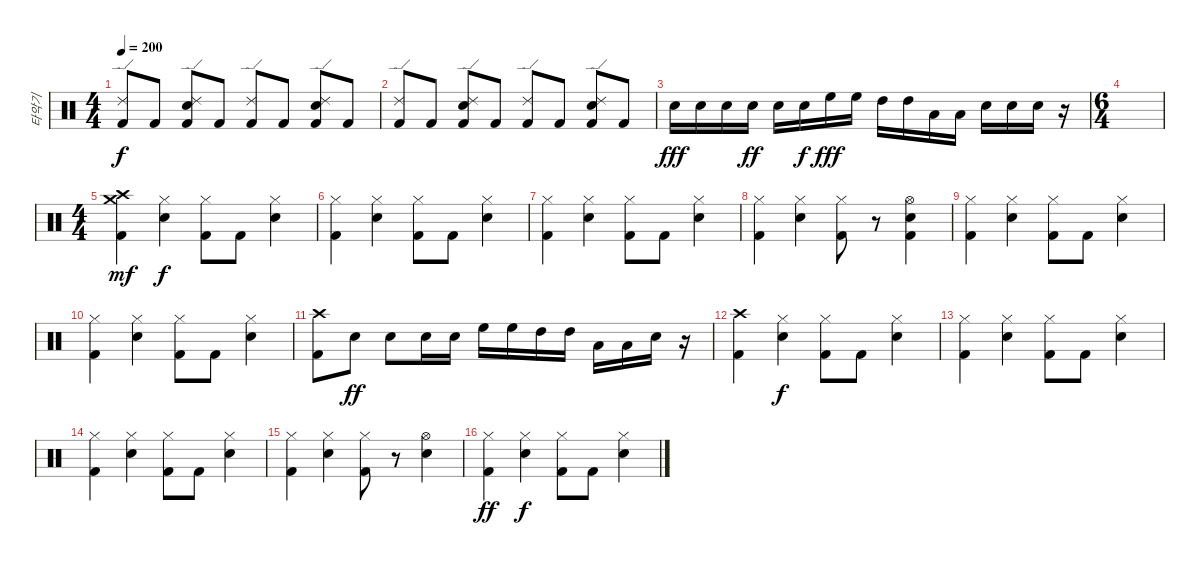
\track ("타악기" "타악기") {instrument percussion}
\staff {score}
\articulation defaults
\ts (4 4)
\tempo 200
\clef neutral
\ks c
("Ride (edge) 2" "Kick (hit) 2").8{dy f} "Kick (hit) 2".8 ("Ride (edge) 2" "Snare (hit) 2" "Kick (hit) 2").8 "Kick (hit) 2".8 ("Ride (edge) 2" "Kick (hit) 2").8 "Kick (hit) 2".8 ("Ride (edge) 2" "Snare (hit) 2" "Kick (hit) 2").8 "Kick (hit) 2".8 |
("Ride (edge) 2" "Kick (hit) 2").8 "Kick (hit) 2".8 ("Ride (edge) 2" "Snare (hit) 2" "Kick (hit) 2").8 "Kick (hit) 2".8 ("Ride (edge) 2" "Kick (hit) 2").8 "Kick (hit) 2".8 ("Ride (edge) 2" "Snare (hit) 2" "Kick (hit) 2").8 "Kick (hit) 2".8 |
"Snare (hit) 2".16{dy fff} "Snare (hit) 2".16 "Snare (hit) 2".16 "Snare (hit) 2".16{dy ff} "Snare (hit) 2".16 "Snare (hit) 2".16{dy f} "High Floor Tom (hit)".16{dy fff} "High Floor Tom (hit)".16 "High Tom (hit)".16 "High Tom (hit)".16 "Low Tom (hit)".16 "Low Tom (hit)".16 "Snare (hit) 2".16 "Snare (hit) 2".16 "Snare (hit) 2".16 r.16 |
\ts (6 4)
|
\ts (4 4)
("Crash high (hit)" "Crash medium (hit)" "Kick (hit) 2").4{dy mf} ("Hi-Hat (closed)" "Snare (hit) 2").4{dy f} ("Hi-Hat (closed)" "Kick (hit) 2").8 "Kick (hit) 2".8 ("Hi-Hat (closed)" "Snare (hit) 2").4 |
("Hi-Hat (closed)" "Kick (hit) 2").4 ("Hi-Hat (closed)" "Snare (hit) 2").4 ("Hi-Hat (closed)" "Kick (hit) 2").8 "Kick (hit) 2".8 ("Hi-Hat (closed)" "Snare (hit) 2").4 |
("Hi-Hat (closed)" "Kick (hit) 2").4 ("Hi-Hat (closed)" "Snare (hit) 2").4 ("Hi-Hat (closed)" "Kick (hit) 2").8 "Kick (hit) 2".8 ("Hi-Hat (closed)" "Snare (hit) 2").4 |
("Hi-Hat (closed)" "Kick (hit) 2").4 ("Hi-Hat (closed)" "Snare (hit) 2").4 ("Hi-Hat (closed)" "Kick (hit) 2").8 r.8 ("Hi-Hat (open)" "Snare (hit) 2" "Kick (hit) 2").4 |
("Hi-Hat (closed)" "Kick (hit) 2").4 ("Hi-Hat (closed)" "Snare (hit) 2").4 ("Hi-Hat (closed)" "Kick (hit) 2").8 "Kick (hit) 2".8 ("Hi-Hat (closed)" "Snare (hit) 2").4 |
("Hi-Hat (closed)" "Kick (hit) 2").4 ("Hi-Hat (closed)" "Snare (hit) 2").4 ("Hi-Hat (closed)" "Kick (hit) 2").8 "Kick (hit) 2".8 ("Hi-Hat (closed)" "Snare (hit) 2").4 |
("Crash high (hit)" "Kick (hit) 2").8 "Snare (hit) 2".8{dy ff} "Snare (hit) 2".8 "Snare (hit) 2".16 "Snare (hit) 2".16 "High Floor Tom (hit)".16 "High Floor Tom (hit)".16 "High Tom (hit)".16 "High Tom (hit)".16 "Low Tom (hit)".16 "Low Tom (hit)".16 "Snare (hit) 2".16 r.16 |
("Crash high (hit)" "Kick (hit) 2").4 ("Hi-Hat (closed)" "Snare (hit) 2").4{dy f} ("Hi-Hat (closed)" "Kick (hit) 2").8 "Kick (hit) 2".8 ("Hi-Hat (closed)" "Snare (hit) 2").4 |
("Hi-Hat (closed)" "Kick (hit) 2").4 ("Hi-Hat (closed)" "Snare (hit) 2").4 ("Hi-Hat (closed)" "Kick (hit) 2").8 "Kick (hit) 2".8 ("Hi-Hat (closed)" "Snare (hit) 2").4 |
("Hi-Hat (closed)" "Kick (hit) 2").4 ("Hi-Hat (closed)" "Snare (hit) 2").4 ("Hi-Hat (closed)" "Kick (hit) 2").8 "Kick (hit) 2".8 ("Hi-Hat (closed)" "Snare (hit) 2").4 |
("Hi-Hat (closed)" "Kick (hit) 2").4 ("Hi-Hat (closed)" "Snare (hit) 2").4 ("Hi-Hat (closed)" "Kick (hit) 2").8 r.8 ("Hi-Hat (open)" "Snare (hit) 2").4 |
("Hi-Hat (closed)" "Kick (hit) 2").4{dy ff} ("Hi-Hat (closed)" "Snare (hit) 2").4{dy f} ("Hi-Hat (closed)" "Kick (hit) 2").8 "Kick (hit) 2".8 ("Hi-Hat (closed)" "Snare (hit) 2").4
